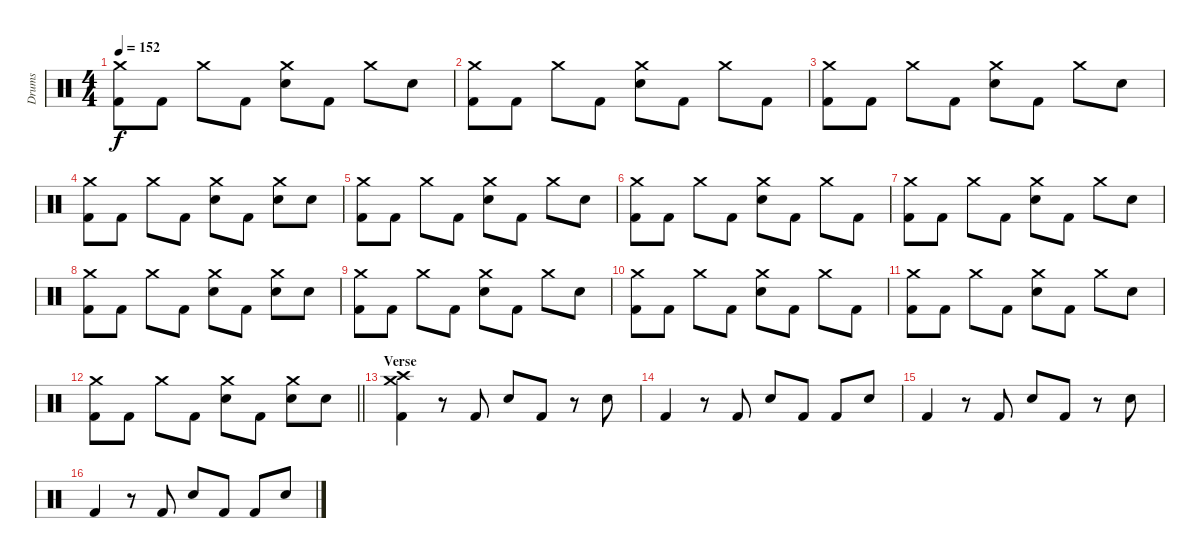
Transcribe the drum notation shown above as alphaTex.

\track ("Drums" "Drums") {instrument percussion}
\staff {score}
\articulation defaults
\ts (4 4)
\tempo 152
\clef neutral
\ks c
("Crash medium (hit)" "Kick (hit) 2").8{dy f} "Kick (hit) 2".8 "Crash medium (hit)".8 "Kick (hit) 2".8 ("Crash medium (hit)" "Electric Snare (hit)").8 "Kick (hit) 2".8 "Crash medium (hit)".8 "Electric Snare (hit)".8 |
("Crash medium (hit)" "Kick (hit) 2").8 "Kick (hit) 2".8 "Crash medium (hit)".8 "Kick (hit) 2".8 ("Crash medium (hit)" "Electric Snare (hit)").8 "Kick (hit) 2".8 "Crash medium (hit)".8 "Kick (hit) 2".8 |
("Crash medium (hit)" "Kick (hit) 2").8 "Kick (hit) 2".8 "Crash medium (hit)".8 "Kick (hit) 2".8 ("Crash medium (hit)" "Electric Snare (hit)").8 "Kick (hit) 2".8 "Crash medium (hit)".8 "Electric Snare (hit)".8 |
("Crash medium (hit)" "Kick (hit) 2").8 "Kick (hit) 2".8 "Crash medium (hit)".8 "Kick (hit) 2".8 ("Crash medium (hit)" "Electric Snare (hit)").8 "Kick (hit) 2".8 ("Crash medium (hit)" "Electric Snare (hit)").8 "Electric Snare (hit)".8 |
("Crash medium (hit)" "Kick (hit) 2").8 "Kick (hit) 2".8 "Crash medium (hit)".8 "Kick (hit) 2".8 ("Crash medium (hit)" "Electric Snare (hit)").8 "Kick (hit) 2".8 "Crash medium (hit)".8 "Electric Snare (hit)".8 |
("Crash medium (hit)" "Kick (hit) 2").8 "Kick (hit) 2".8 "Crash medium (hit)".8 "Kick (hit) 2".8 ("Crash medium (hit)" "Electric Snare (hit)").8 "Kick (hit) 2".8 "Crash medium (hit)".8 "Kick (hit) 2".8 |
("Crash medium (hit)" "Kick (hit) 2").8 "Kick (hit) 2".8 "Crash medium (hit)".8 "Kick (hit) 2".8 ("Crash medium (hit)" "Electric Snare (hit)").8 "Kick (hit) 2".8 "Crash medium (hit)".8 "Electric Snare (hit)".8 |
("Crash medium (hit)" "Kick (hit) 2").8 "Kick (hit) 2".8 "Crash medium (hit)".8 "Kick (hit) 2".8 ("Crash medium (hit)" "Electric Snare (hit)").8 "Kick (hit) 2".8 ("Crash medium (hit)" "Electric Snare (hit)").8 "Electric Snare (hit)".8 |
("Crash medium (hit)" "Kick (hit) 2").8 "Kick (hit) 2".8 "Crash medium (hit)".8 "Kick (hit) 2".8 ("Crash medium (hit)" "Electric Snare (hit)").8 "Kick (hit) 2".8 "Crash medium (hit)".8 "Electric Snare (hit)".8 |
("Crash medium (hit)" "Kick (hit) 2").8 "Kick (hit) 2".8 "Crash medium (hit)".8 "Kick (hit) 2".8 ("Crash medium (hit)" "Electric Snare (hit)").8 "Kick (hit) 2".8 "Crash medium (hit)".8 "Kick (hit) 2".8 |
("Crash medium (hit)" "Kick (hit) 2").8 "Kick (hit) 2".8 "Crash medium (hit)".8 "Kick (hit) 2".8 ("Crash medium (hit)" "Electric Snare (hit)").8 "Kick (hit) 2".8 "Crash medium (hit)".8 "Electric Snare (hit)".8 |
\barLineRight lightlight
("Crash medium (hit)" "Kick (hit) 2").8 "Kick (hit) 2".8 "Crash medium (hit)".8 "Kick (hit) 2".8 ("Crash medium (hit)" "Electric Snare (hit)").8 "Kick (hit) 2".8 ("Crash medium (hit)" "Electric Snare (hit)").8 "Electric Snare (hit)".8 |
\section ("" "Verse")
("Crash medium (hit)" "Crash high (hit)" "Kick (hit) 2").4 r.8 "Kick (hit) 2".8 "Electric Snare (hit)".8 "Kick (hit) 2".8 r.8 "Electric Snare (hit)".8 |
"Kick (hit) 2".4 r.8 "Kick (hit) 2".8 "Electric Snare (hit)".8 "Kick (hit) 2".8 "Kick (hit) 2".8 "Electric Snare (hit)".8 |
"Kick (hit) 2".4 r.8 "Kick (hit) 2".8 "Electric Snare (hit)".8 "Kick (hit) 2".8 r.8 "Electric Snare (hit)".8 |
"Kick (hit) 2".4 r.8 "Kick (hit) 2".8 "Electric Snare (hit)".8 "Kick (hit) 2".8 "Kick (hit) 2".8 "Electric Snare (hit)".8
